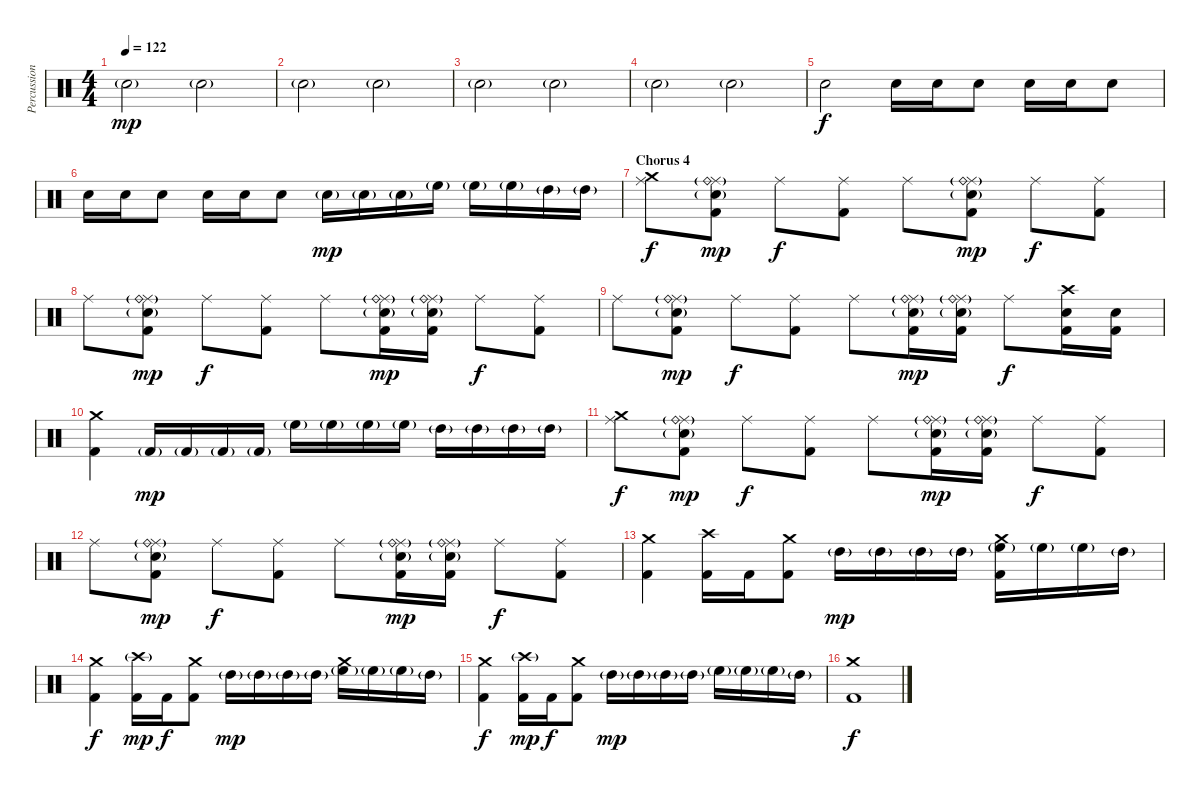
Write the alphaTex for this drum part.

\track ("Percussion" "Percussion") {instrument percussion}
\staff {score}
\articulation defaults
\ts (4 4)
\tempo 122
\clef neutral
\ks c "Snare (hit) 2"{g}.2{dy mp} "Snare (hit) 2"{g}.2
|
"Snare (hit) 2"{g}.2 "Snare (hit) 2"{g}.2 |
"Snare (hit) 2"{g}.2 "Snare (hit) 2"{g}.2 |
"Snare (hit) 2"{g}.2 "Snare (hit) 2"{g}.2 |
"Snare (hit) 2".2{dy f} "Snare (hit) 2".16 "Snare (hit) 2".16 "Snare (hit) 2".8 "Snare (hit) 2".16 "Snare (hit) 2".16 "Snare (hit) 2".8 |
"Snare (hit) 2".16 "Snare (hit) 2".16 "Snare (hit) 2".8 "Snare (hit) 2".16 "Snare (hit) 2".16 "Snare (hit) 2".8 "Snare (hit) 2"{g}.16{dy mp} "Snare (hit) 2"{g}.16 "Snare (hit) 2"{g}.16 "High Floor Tom (hit)"{g}.16 "High Floor Tom (hit)"{g}.16 "High Floor Tom (hit)"{g}.16 "High Tom (hit)"{g}.16 "High Tom (hit)"{g}.16 |
\section ("" "Chorus 4")
("Crash medium (hit)" "Ride (middle)").8{dy f volume 7} ("Snare (hit) 2"{g} "Ride (middle)"{g} "Ride (bell)" "Kick (hit) 2").8{dy mp} "Ride (middle)".8{dy f} ("Ride (middle)" "Kick (hit) 2").8 "Ride (middle)".8 ("Snare (hit) 2"{g} "Ride (middle)"{g} "Ride (bell)" "Kick (hit) 2").8{dy mp} "Ride (middle)".8{dy f} ("Ride (middle)" "Kick (hit) 2").8 |
"Ride (middle)".8 ("Snare (hit) 2"{g} "Ride (middle)"{g} "Ride (bell)" "Kick (hit) 2").8{dy mp} "Ride (middle)".8{dy f} ("Ride (middle)" "Kick (hit) 2").8 "Ride (middle)".8 ("Snare (hit) 2"{g} "Ride (middle)"{g} "Ride (bell)" "Kick (hit) 2").16{dy mp} ("Snare (hit) 2"{g} "Ride (middle)"{g} "Ride (bell)" "Kick (hit) 2").16 "Ride (middle)".8{dy f} ("Ride (middle)" "Kick (hit) 2").8 |
"Ride (middle)".8 ("Snare (hit) 2"{g} "Ride (middle)"{g} "Ride (bell)" "Kick (hit) 2").8{dy mp} "Ride (middle)".8{dy f} ("Ride (middle)" "Kick (hit) 2").8 "Ride (middle)".8 ("Snare (hit) 2"{g} "Ride (middle)"{g} "Ride (bell)" "Kick (hit) 2").16{dy mp} ("Snare (hit) 2"{g} "Ride (middle)"{g} "Ride (bell)" "Kick (hit) 2").16 "Ride (middle)".8{dy f} ("Snare (hit) 2" "Crash high (hit)" "Kick (hit) 2").16 ("Snare (hit) 2" "Kick (hit) 2").16 |
("Crash medium (hit)" "Kick (hit) 2").4 "Kick (hit) 2"{g}.16{dy mp} "Kick (hit) 2"{g}.16 "Kick (hit) 2"{g}.16 "Kick (hit) 2"{g}.16 "High Floor Tom (hit)"{g}.16 "High Floor Tom (hit)"{g}.16 "High Floor Tom (hit)"{g}.16 "High Floor Tom (hit)"{g}.16 "High Tom (hit)"{g}.16 "High Tom (hit)"{g}.16 "High Tom (hit)"{g}.16 "High Tom (hit)"{g}.16 |
("Crash medium (hit)" "Ride (middle)").8{dy f} ("Snare (hit) 2"{g} "Ride (middle)"{g} "Ride (bell)" "Kick (hit) 2").8{dy mp} "Ride (middle)".8{dy f} ("Ride (middle)" "Kick (hit) 2").8 "Ride (middle)".8 ("Snare (hit) 2"{g} "Ride (middle)"{g} "Ride (bell)" "Kick (hit) 2").16{dy mp} ("Snare (hit) 2"{g} "Ride (middle)"{g} "Ride (bell)" "Kick (hit) 2").16 "Ride (middle)".8{dy f} ("Ride (middle)" "Kick (hit) 2").8 |
"Ride (middle)".8 ("Snare (hit) 2"{g} "Ride (middle)"{g} "Ride (bell)" "Kick (hit) 2").8{dy mp} "Ride (middle)".8{dy f} ("Ride (middle)" "Kick (hit) 2").8 "Ride (middle)".8 ("Snare (hit) 2"{g} "Ride (middle)"{g} "Ride (bell)" "Kick (hit) 2").16{dy mp} ("Snare (hit) 2"{g} "Ride (middle)"{g} "Ride (bell)" "Kick (hit) 2").16 "Ride (middle)".8{dy f} ("Ride (middle)" "Kick (hit) 2").8 |
("Crash medium (hit)" "Kick (hit) 2").4 ("Crash high (hit)" "Kick (hit) 2").16 "Kick (hit) 2".16 ("Crash medium (hit)" "Kick (hit) 2").8 "High Tom (hit)"{g}.16{dy mp} "High Tom (hit)"{g}.16 "High Tom (hit)"{g}.16 "High Tom (hit)"{g}.16 ("Crash medium (hit)" "High Floor Tom (hit)"{g} "Kick (hit) 2").16 "High Floor Tom (hit)"{g}.16 "High Floor Tom (hit)"{g}.16 "High Tom (hit)"{g}.16 |
("Crash medium (hit)" "Kick (hit) 2").4{dy f} ("Crash high (hit)"{g} "Kick (hit) 2").16{dy mp} "Kick (hit) 2".16{dy f} ("Crash medium (hit)" "Kick (hit) 2").8 "High Tom (hit)"{g}.16{dy mp} "High Tom (hit)"{g}.16 "High Tom (hit)"{g}.16 "High Tom (hit)"{g}.16 ("Crash medium (hit)" "High Floor Tom (hit)"{g}).16 "High Floor Tom (hit)"{g}.16 "High Floor Tom (hit)"{g}.16 "High Tom (hit)"{g}.16 |
("Crash medium (hit)" "Kick (hit) 2").4{dy f} ("Crash high (hit)"{g} "Kick (hit) 2").16{dy mp} "Kick (hit) 2".16{dy f} ("Crash medium (hit)" "Kick (hit) 2").8 "High Tom (hit)"{g}.16{dy mp} "High Tom (hit)"{g}.16 "High Tom (hit)"{g}.16 "High Tom (hit)"{g}.16 "High Floor Tom (hit)"{g}.16 "High Floor Tom (hit)"{g}.16 "High Floor Tom (hit)"{g}.16 "High Tom (hit)"{g}.16 |
("Crash medium (hit)" "Kick (hit) 2").1{dy f}
